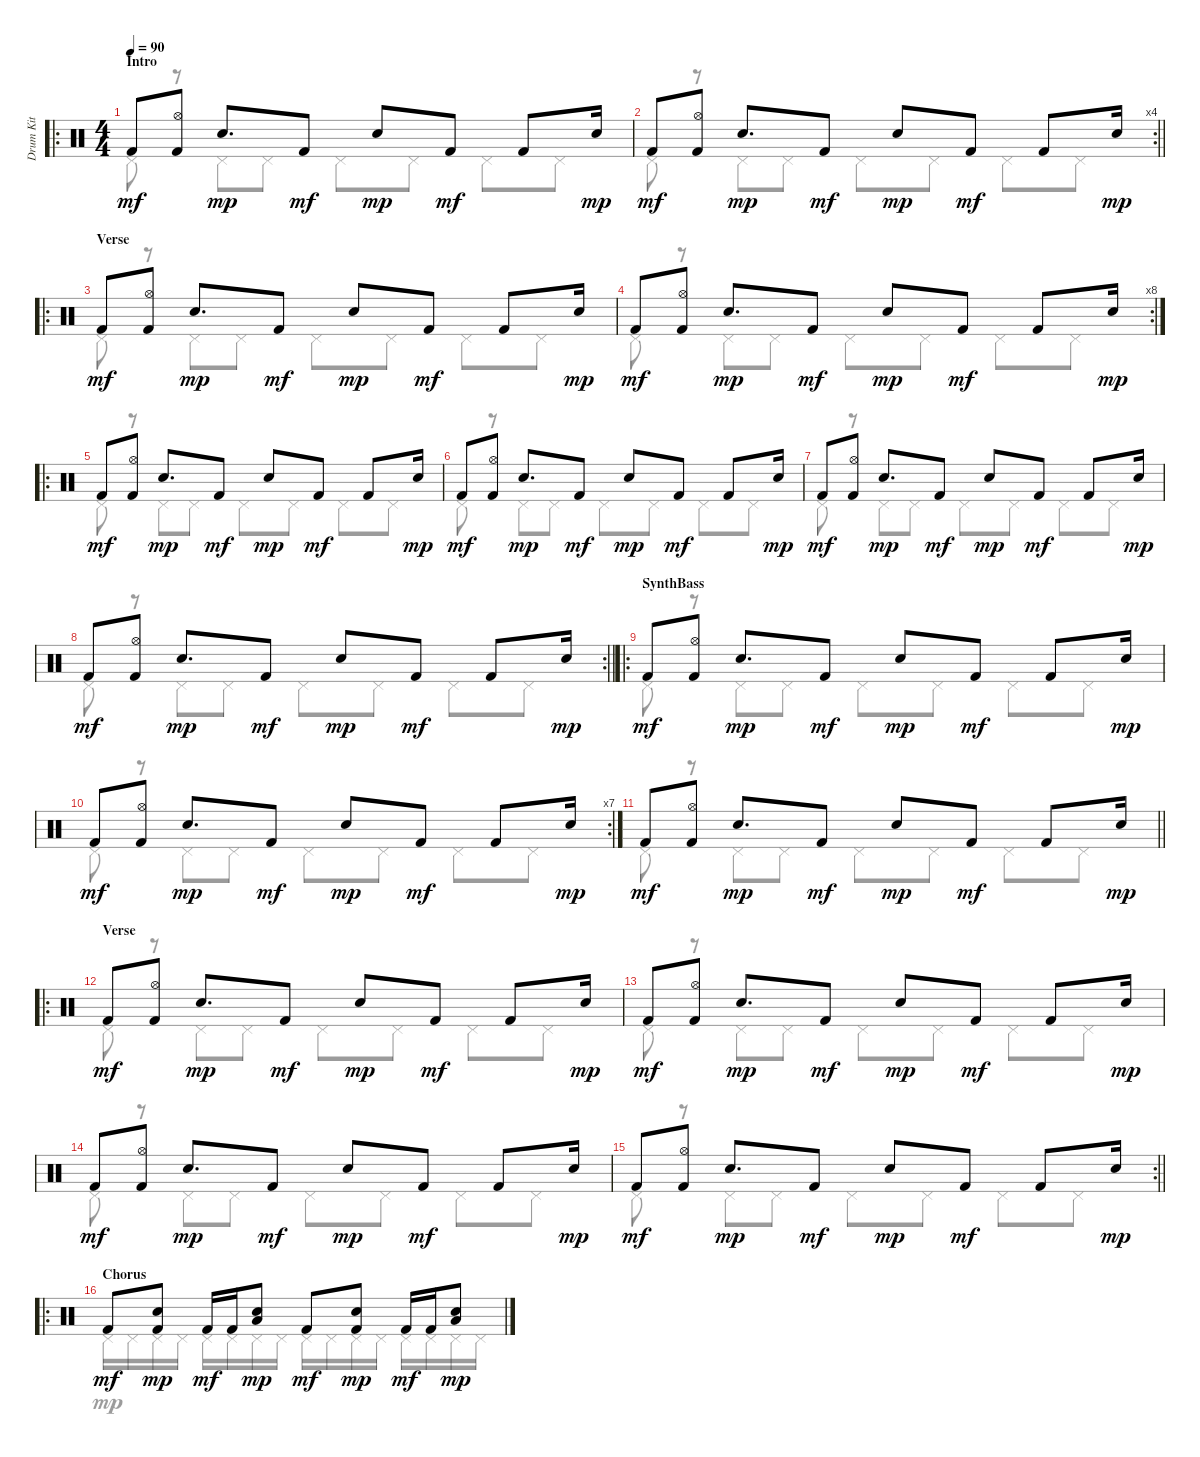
\track ("Drum Kit" "Drum Kit") {instrument percussion}
\staff {score}
\articulation defaults
\voice
\ro
\ts (4 4)
\section ("" "Intro")
\tempo 90
\clef neutral
\ks c "Kick (hit) 2".8{dy mf}
("Hi-Hat (open)" "Kick (hit) 2").8 "Electric Snare (hit)".8{d dy mp} "Kick (hit) 2".8{dy mf} "Electric Snare (hit)".8{dy mp} "Kick (hit) 2".8{dy mf} "Kick (hit) 2".8 "Electric Snare (hit)".16{dy mp} |
\rc 4
\barLineRight lightlight "Kick (hit) 2".8{dy mf}
("Hi-Hat (open)" "Kick (hit) 2").8 "Electric Snare (hit)".8{d dy mp} "Kick (hit) 2".8{dy mf} "Electric Snare (hit)".8{dy mp} "Kick (hit) 2".8{dy mf} "Kick (hit) 2".8 "Electric Snare (hit)".16{dy mp} |
\ro
\section ("" "Verse")
"Kick (hit) 2".8{dy mf} ("Hi-Hat (open)" "Kick (hit) 2").8 "Electric Snare (hit)".8{d dy mp} "Kick (hit) 2".8{dy mf} "Electric Snare (hit)".8{dy mp} "Kick (hit) 2".8{dy mf} "Kick (hit) 2".8 "Electric Snare (hit)".16{dy mp} |
\rc 8 "Kick (hit) 2".8{dy mf}
("Hi-Hat (open)" "Kick (hit) 2").8 "Electric Snare (hit)".8{d dy mp} "Kick (hit) 2".8{dy mf} "Electric Snare (hit)".8{dy mp} "Kick (hit) 2".8{dy mf} "Kick (hit) 2".8 "Electric Snare (hit)".16{dy mp} |
\ro "Kick (hit) 2".8{dy mf}
("Hi-Hat (open)" "Kick (hit) 2").8 "Electric Snare (hit)".8{d dy mp} "Kick (hit) 2".8{dy mf} "Electric Snare (hit)".8{dy mp} "Kick (hit) 2".8{dy mf} "Kick (hit) 2".8 "Electric Snare (hit)".16{dy mp} |
"Kick (hit) 2".8{dy mf} ("Hi-Hat (open)" "Kick (hit) 2").8 "Electric Snare (hit)".8{d dy mp} "Kick (hit) 2".8{dy mf} "Electric Snare (hit)".8{dy mp} "Kick (hit) 2".8{dy mf} "Kick (hit) 2".8 "Electric Snare (hit)".16{dy mp} |
"Kick (hit) 2".8{dy mf} ("Hi-Hat (open)" "Kick (hit) 2").8 "Electric Snare (hit)".8{d dy mp} "Kick (hit) 2".8{dy mf} "Electric Snare (hit)".8{dy mp} "Kick (hit) 2".8{dy mf} "Kick (hit) 2".8 "Electric Snare (hit)".16{dy mp} |
\rc 2
\barLineRight lightlight "Kick (hit) 2".8{dy mf}
("Hi-Hat (open)" "Kick (hit) 2").8 "Electric Snare (hit)".8{d dy mp} "Kick (hit) 2".8{dy mf} "Electric Snare (hit)".8{dy mp} "Kick (hit) 2".8{dy mf} "Kick (hit) 2".8 "Electric Snare (hit)".16{dy mp} |
\ro
\section ("" "SynthBass")
"Kick (hit) 2".8{dy mf} ("Hi-Hat (open)" "Kick (hit) 2").8 "Electric Snare (hit)".8{d dy mp} "Kick (hit) 2".8{dy mf} "Electric Snare (hit)".8{dy mp} "Kick (hit) 2".8{dy mf} "Kick (hit) 2".8 "Electric Snare (hit)".16{dy mp} |
\rc 7 "Kick (hit) 2".8{dy mf}
("Hi-Hat (open)" "Kick (hit) 2").8 "Electric Snare (hit)".8{d dy mp} "Kick (hit) 2".8{dy mf} "Electric Snare (hit)".8{dy mp} "Kick (hit) 2".8{dy mf} "Kick (hit) 2".8 "Electric Snare (hit)".16{dy mp} |
\barLineRight lightlight "Kick (hit) 2".8{dy mf}
("Hi-Hat (open)" "Kick (hit) 2").8 "Electric Snare (hit)".8{d dy mp} "Kick (hit) 2".8{dy mf} "Electric Snare (hit)".8{dy mp} "Kick (hit) 2".8{dy mf} "Kick (hit) 2".8 "Electric Snare (hit)".16{dy mp} |
\ro
\section ("" "Verse")
"Kick (hit) 2".8{dy mf} ("Hi-Hat (open)" "Kick (hit) 2").8 "Electric Snare (hit)".8{d dy mp} "Kick (hit) 2".8{dy mf} "Electric Snare (hit)".8{dy mp} "Kick (hit) 2".8{dy mf} "Kick (hit) 2".8 "Electric Snare (hit)".16{dy mp} |
"Kick (hit) 2".8{dy mf} ("Hi-Hat (open)" "Kick (hit) 2").8 "Electric Snare (hit)".8{d dy mp} "Kick (hit) 2".8{dy mf} "Electric Snare (hit)".8{dy mp} "Kick (hit) 2".8{dy mf} "Kick (hit) 2".8 "Electric Snare (hit)".16{dy mp} |
"Kick (hit) 2".8{dy mf} ("Hi-Hat (open)" "Kick (hit) 2").8 "Electric Snare (hit)".8{d dy mp} "Kick (hit) 2".8{dy mf} "Electric Snare (hit)".8{dy mp} "Kick (hit) 2".8{dy mf} "Kick (hit) 2".8 "Electric Snare (hit)".16{dy mp} |
\rc 2
\barLineRight lightlight "Kick (hit) 2".8{dy mf}
("Hi-Hat (open)" "Kick (hit) 2").8 "Electric Snare (hit)".8{d dy mp} "Kick (hit) 2".8{dy mf} "Electric Snare (hit)".8{dy mp} "Kick (hit) 2".8{dy mf} "Kick (hit) 2".8 "Electric Snare (hit)".16{dy mp} |
\ro
\section ("" "Chorus")
"Kick (hit) 2".8{dy mf} ("Electric Snare (hit)" "Kick (hit) 2").8{dy mp} "Kick (hit) 2".16{dy mf} "Kick (hit) 2".16 ("Electric Snare (hit)" "Low Tom (hit)").8{bd 60 dy mp} "Kick (hit) 2".8{dy mf} ("Electric Snare (hit)" "Kick (hit) 2").8{dy mp} "Kick (hit) 2".16{dy mf} "Kick (hit) 2".16 ("Electric Snare (hit)" "Low Tom (hit)").8{bd 60 dy mp}
\voice
\clef neutral
\ottava regular
\simile none
\ks c "Pedal Hi-Hat (hit)".8{dy mf}
r.8 "Pedal Hi-Hat (hit)".8 "Pedal Hi-Hat (hit)".8 "Pedal Hi-Hat (hit)".8 "Pedal Hi-Hat (hit)".8 "Pedal Hi-Hat (hit)".8 "Pedal Hi-Hat (hit)".8 |
\barLineRight lightlight "Pedal Hi-Hat (hit)".8
r.8 "Pedal Hi-Hat (hit)".8 "Pedal Hi-Hat (hit)".8 "Pedal Hi-Hat (hit)".8 "Pedal Hi-Hat (hit)".8 "Pedal Hi-Hat (hit)".8 "Pedal Hi-Hat (hit)".8 |
"Pedal Hi-Hat (hit)".8 r.8 "Pedal Hi-Hat (hit)".8 "Pedal Hi-Hat (hit)".8 "Pedal Hi-Hat (hit)".8 "Pedal Hi-Hat (hit)".8 "Pedal Hi-Hat (hit)".8 "Pedal Hi-Hat (hit)".8 |
"Pedal Hi-Hat (hit)".8 r.8 "Pedal Hi-Hat (hit)".8 "Pedal Hi-Hat (hit)".8 "Pedal Hi-Hat (hit)".8 "Pedal Hi-Hat (hit)".8 "Pedal Hi-Hat (hit)".8 "Pedal Hi-Hat (hit)".8 |
"Pedal Hi-Hat (hit)".8 r.8 "Pedal Hi-Hat (hit)".8 "Pedal Hi-Hat (hit)".8 "Pedal Hi-Hat (hit)".8 "Pedal Hi-Hat (hit)".8 "Pedal Hi-Hat (hit)".8 "Pedal Hi-Hat (hit)".8 |
"Pedal Hi-Hat (hit)".8 r.8 "Pedal Hi-Hat (hit)".8 "Pedal Hi-Hat (hit)".8 "Pedal Hi-Hat (hit)".8 "Pedal Hi-Hat (hit)".8 "Pedal Hi-Hat (hit)".8 "Pedal Hi-Hat (hit)".8 |
"Pedal Hi-Hat (hit)".8 r.8 "Pedal Hi-Hat (hit)".8 "Pedal Hi-Hat (hit)".8 "Pedal Hi-Hat (hit)".8 "Pedal Hi-Hat (hit)".8 "Pedal Hi-Hat (hit)".8 "Pedal Hi-Hat (hit)".8 |
\barLineRight lightlight "Pedal Hi-Hat (hit)".8
r.8 "Pedal Hi-Hat (hit)".8 "Pedal Hi-Hat (hit)".8 "Pedal Hi-Hat (hit)".8 "Pedal Hi-Hat (hit)".8 "Pedal Hi-Hat (hit)".8 "Pedal Hi-Hat (hit)".8 |
"Pedal Hi-Hat (hit)".8 r.8 "Pedal Hi-Hat (hit)".8 "Pedal Hi-Hat (hit)".8 "Pedal Hi-Hat (hit)".8 "Pedal Hi-Hat (hit)".8 "Pedal Hi-Hat (hit)".8 "Pedal Hi-Hat (hit)".8 |
"Pedal Hi-Hat (hit)".8 r.8 "Pedal Hi-Hat (hit)".8 "Pedal Hi-Hat (hit)".8 "Pedal Hi-Hat (hit)".8 "Pedal Hi-Hat (hit)".8 "Pedal Hi-Hat (hit)".8 "Pedal Hi-Hat (hit)".8 |
\barLineRight lightlight "Pedal Hi-Hat (hit)".8
r.8 "Pedal Hi-Hat (hit)".8 "Pedal Hi-Hat (hit)".8 "Pedal Hi-Hat (hit)".8 "Pedal Hi-Hat (hit)".8 "Pedal Hi-Hat (hit)".8 "Pedal Hi-Hat (hit)".8 |
"Pedal Hi-Hat (hit)".8 r.8 "Pedal Hi-Hat (hit)".8 "Pedal Hi-Hat (hit)".8 "Pedal Hi-Hat (hit)".8 "Pedal Hi-Hat (hit)".8 "Pedal Hi-Hat (hit)".8 "Pedal Hi-Hat (hit)".8 |
"Pedal Hi-Hat (hit)".8 r.8 "Pedal Hi-Hat (hit)".8 "Pedal Hi-Hat (hit)".8 "Pedal Hi-Hat (hit)".8 "Pedal Hi-Hat (hit)".8 "Pedal Hi-Hat (hit)".8 "Pedal Hi-Hat (hit)".8 |
"Pedal Hi-Hat (hit)".8 r.8 "Pedal Hi-Hat (hit)".8 "Pedal Hi-Hat (hit)".8 "Pedal Hi-Hat (hit)".8 "Pedal Hi-Hat (hit)".8 "Pedal Hi-Hat (hit)".8 "Pedal Hi-Hat (hit)".8 |
\barLineRight lightlight "Pedal Hi-Hat (hit)".8
r.8 "Pedal Hi-Hat (hit)".8 "Pedal Hi-Hat (hit)".8 "Pedal Hi-Hat (hit)".8 "Pedal Hi-Hat (hit)".8 "Pedal Hi-Hat (hit)".8 "Pedal Hi-Hat (hit)".8 |
"Pedal Hi-Hat (hit)".16{dy mp} "Pedal Hi-Hat (hit)".16 "Pedal Hi-Hat (hit)".16 "Pedal Hi-Hat (hit)".16 "Pedal Hi-Hat (hit)".16 "Pedal Hi-Hat (hit)".16 "Pedal Hi-Hat (hit)".16 "Pedal Hi-Hat (hit)".16 "Pedal Hi-Hat (hit)".16 "Pedal Hi-Hat (hit)".16 "Pedal Hi-Hat (hit)".16 "Pedal Hi-Hat (hit)".16 "Pedal Hi-Hat (hit)".16 "Pedal Hi-Hat (hit)".16 "Pedal Hi-Hat (hit)".16 "Pedal Hi-Hat (hit)".16
